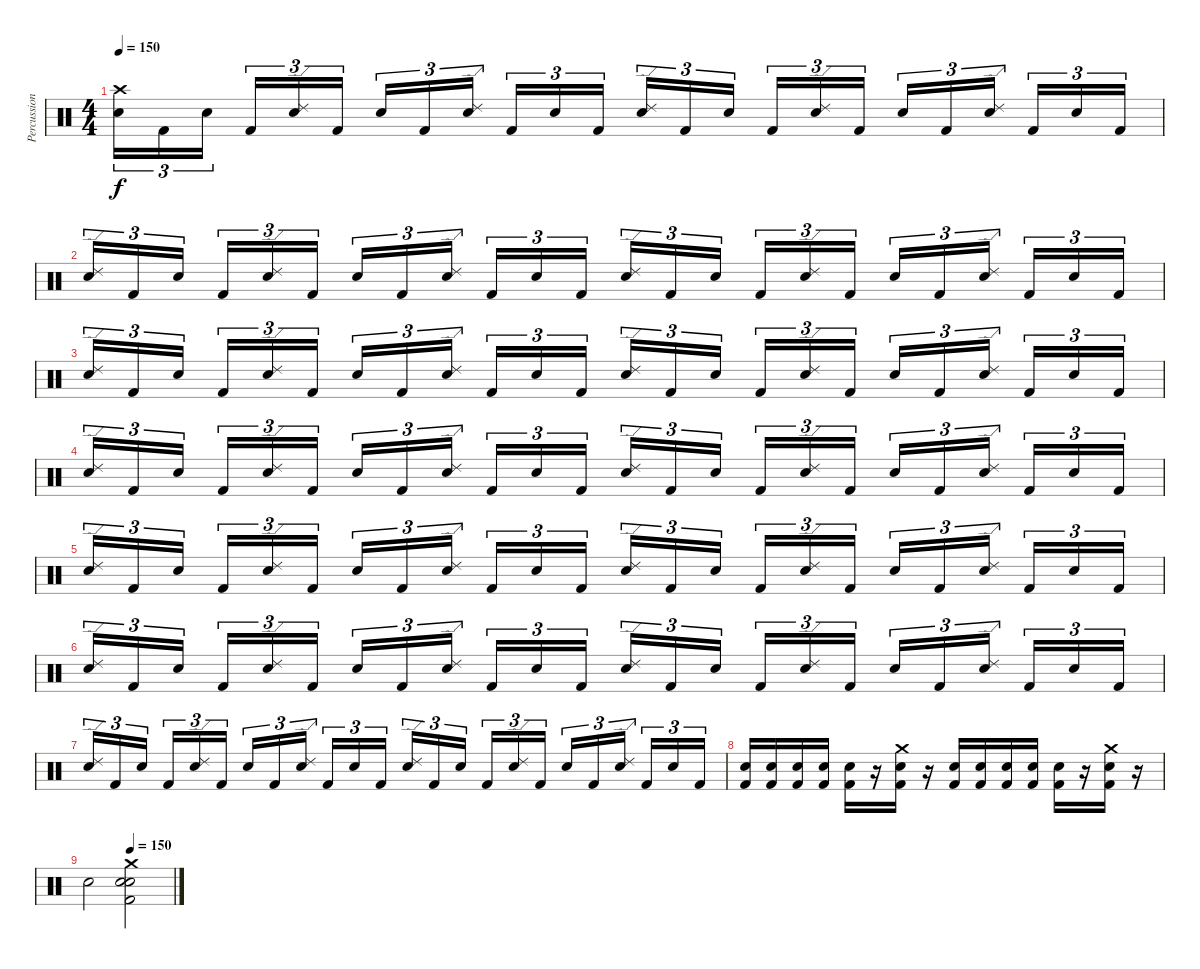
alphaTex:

\track ("Percussion" "Percussion") {instrument percussion}
\staff {score}
\articulation defaults
\ts (4 4)
\tempo 150
\clef neutral
\ks c
("Electric Snare (hit)" "Crash high (hit)").16{tu (3 2) dy f} "Kick (hit) 2".16{tu (3 2)} "Electric Snare (hit)".16{tu (3 2)} "Kick (hit) 2".16{tu (3 2)} ("Electric Snare (hit)" "Ride (edge) 2").16{tu (3 2)} "Kick (hit) 2".16{tu (3 2)} "Electric Snare (hit)".16{tu (3 2)} "Kick (hit) 2".16{tu (3 2)} ("Electric Snare (hit)" "Ride (edge) 2").16{tu (3 2)} "Kick (hit) 2".16{tu (3 2)} "Electric Snare (hit)".16{tu (3 2)} "Kick (hit) 2".16{tu (3 2)} ("Electric Snare (hit)" "Ride (edge) 2").16{tu (3 2)} "Kick (hit) 2".16{tu (3 2)} "Electric Snare (hit)".16{tu (3 2)} "Kick (hit) 2".16{tu (3 2)} ("Electric Snare (hit)" "Ride (edge) 2").16{tu (3 2)} "Kick (hit) 2".16{tu (3 2)} "Electric Snare (hit)".16{tu (3 2)} "Kick (hit) 2".16{tu (3 2)} ("Electric Snare (hit)" "Ride (edge) 2").16{tu (3 2)} "Kick (hit) 2".16{tu (3 2)} "Electric Snare (hit)".16{tu (3 2)} "Kick (hit) 2".16{tu (3 2)} |
("Electric Snare (hit)" "Ride (edge) 2").16{tu (3 2)} "Kick (hit) 2".16{tu (3 2)} "Electric Snare (hit)".16{tu (3 2)} "Kick (hit) 2".16{tu (3 2)} ("Electric Snare (hit)" "Ride (edge) 2").16{tu (3 2)} "Kick (hit) 2".16{tu (3 2)} "Electric Snare (hit)".16{tu (3 2)} "Kick (hit) 2".16{tu (3 2)} ("Electric Snare (hit)" "Ride (edge) 2").16{tu (3 2)} "Kick (hit) 2".16{tu (3 2)} "Electric Snare (hit)".16{tu (3 2)} "Kick (hit) 2".16{tu (3 2)} ("Electric Snare (hit)" "Ride (edge) 2").16{tu (3 2)} "Kick (hit) 2".16{tu (3 2)} "Electric Snare (hit)".16{tu (3 2)} "Kick (hit) 2".16{tu (3 2)} ("Electric Snare (hit)" "Ride (edge) 2").16{tu (3 2)} "Kick (hit) 2".16{tu (3 2)} "Electric Snare (hit)".16{tu (3 2)} "Kick (hit) 2".16{tu (3 2)} ("Electric Snare (hit)" "Ride (edge) 2").16{tu (3 2)} "Kick (hit) 2".16{tu (3 2)} "Electric Snare (hit)".16{tu (3 2)} "Kick (hit) 2".16{tu (3 2)} |
("Electric Snare (hit)" "Ride (edge) 2").16{tu (3 2)} "Kick (hit) 2".16{tu (3 2)} "Electric Snare (hit)".16{tu (3 2)} "Kick (hit) 2".16{tu (3 2)} ("Electric Snare (hit)" "Ride (edge) 2").16{tu (3 2)} "Kick (hit) 2".16{tu (3 2)} "Electric Snare (hit)".16{tu (3 2)} "Kick (hit) 2".16{tu (3 2)} ("Electric Snare (hit)" "Ride (edge) 2").16{tu (3 2)} "Kick (hit) 2".16{tu (3 2)} "Electric Snare (hit)".16{tu (3 2)} "Kick (hit) 2".16{tu (3 2)} ("Electric Snare (hit)" "Ride (edge) 2").16{tu (3 2)} "Kick (hit) 2".16{tu (3 2)} "Electric Snare (hit)".16{tu (3 2)} "Kick (hit) 2".16{tu (3 2)} ("Electric Snare (hit)" "Ride (edge) 2").16{tu (3 2)} "Kick (hit) 2".16{tu (3 2)} "Electric Snare (hit)".16{tu (3 2)} "Kick (hit) 2".16{tu (3 2)} ("Electric Snare (hit)" "Ride (edge) 2").16{tu (3 2)} "Kick (hit) 2".16{tu (3 2)} "Electric Snare (hit)".16{tu (3 2)} "Kick (hit) 2".16{tu (3 2)} |
("Electric Snare (hit)" "Ride (edge) 2").16{tu (3 2)} "Kick (hit) 2".16{tu (3 2)} "Electric Snare (hit)".16{tu (3 2)} "Kick (hit) 2".16{tu (3 2)} ("Electric Snare (hit)" "Ride (edge) 2").16{tu (3 2)} "Kick (hit) 2".16{tu (3 2)} "Electric Snare (hit)".16{tu (3 2)} "Kick (hit) 2".16{tu (3 2)} ("Electric Snare (hit)" "Ride (edge) 2").16{tu (3 2)} "Kick (hit) 2".16{tu (3 2)} "Electric Snare (hit)".16{tu (3 2)} "Kick (hit) 2".16{tu (3 2)} ("Electric Snare (hit)" "Ride (edge) 2").16{tu (3 2)} "Kick (hit) 2".16{tu (3 2)} "Electric Snare (hit)".16{tu (3 2)} "Kick (hit) 2".16{tu (3 2)} ("Electric Snare (hit)" "Ride (edge) 2").16{tu (3 2)} "Kick (hit) 2".16{tu (3 2)} "Electric Snare (hit)".16{tu (3 2)} "Kick (hit) 2".16{tu (3 2)} ("Electric Snare (hit)" "Ride (edge) 2").16{tu (3 2)} "Kick (hit) 2".16{tu (3 2)} "Electric Snare (hit)".16{tu (3 2)} "Kick (hit) 2".16{tu (3 2)} |
("Electric Snare (hit)" "Ride (edge) 2").16{tu (3 2)} "Kick (hit) 2".16{tu (3 2)} "Electric Snare (hit)".16{tu (3 2)} "Kick (hit) 2".16{tu (3 2)} ("Electric Snare (hit)" "Ride (edge) 2").16{tu (3 2)} "Kick (hit) 2".16{tu (3 2)} "Electric Snare (hit)".16{tu (3 2)} "Kick (hit) 2".16{tu (3 2)} ("Electric Snare (hit)" "Ride (edge) 2").16{tu (3 2)} "Kick (hit) 2".16{tu (3 2)} "Electric Snare (hit)".16{tu (3 2)} "Kick (hit) 2".16{tu (3 2)} ("Electric Snare (hit)" "Ride (edge) 2").16{tu (3 2)} "Kick (hit) 2".16{tu (3 2)} "Electric Snare (hit)".16{tu (3 2)} "Kick (hit) 2".16{tu (3 2)} ("Electric Snare (hit)" "Ride (edge) 2").16{tu (3 2)} "Kick (hit) 2".16{tu (3 2)} "Electric Snare (hit)".16{tu (3 2)} "Kick (hit) 2".16{tu (3 2)} ("Electric Snare (hit)" "Ride (edge) 2").16{tu (3 2)} "Kick (hit) 2".16{tu (3 2)} "Electric Snare (hit)".16{tu (3 2)} "Kick (hit) 2".16{tu (3 2)} |
("Electric Snare (hit)" "Ride (edge) 2").16{tu (3 2)} "Kick (hit) 2".16{tu (3 2)} "Electric Snare (hit)".16{tu (3 2)} "Kick (hit) 2".16{tu (3 2)} ("Electric Snare (hit)" "Ride (edge) 2").16{tu (3 2)} "Kick (hit) 2".16{tu (3 2)} "Electric Snare (hit)".16{tu (3 2)} "Kick (hit) 2".16{tu (3 2)} ("Electric Snare (hit)" "Ride (edge) 2").16{tu (3 2)} "Kick (hit) 2".16{tu (3 2)} "Electric Snare (hit)".16{tu (3 2)} "Kick (hit) 2".16{tu (3 2)} ("Electric Snare (hit)" "Ride (edge) 2").16{tu (3 2)} "Kick (hit) 2".16{tu (3 2)} "Electric Snare (hit)".16{tu (3 2)} "Kick (hit) 2".16{tu (3 2)} ("Electric Snare (hit)" "Ride (edge) 2").16{tu (3 2)} "Kick (hit) 2".16{tu (3 2)} "Electric Snare (hit)".16{tu (3 2)} "Kick (hit) 2".16{tu (3 2)} ("Electric Snare (hit)" "Ride (edge) 2").16{tu (3 2)} "Kick (hit) 2".16{tu (3 2)} "Electric Snare (hit)".16{tu (3 2)} "Kick (hit) 2".16{tu (3 2)} |
("Electric Snare (hit)" "Ride (edge) 2").16{tu (3 2)} "Kick (hit) 2".16{tu (3 2)} "Electric Snare (hit)".16{tu (3 2)} "Kick (hit) 2".16{tu (3 2)} ("Electric Snare (hit)" "Ride (edge) 2").16{tu (3 2)} "Kick (hit) 2".16{tu (3 2)} "Electric Snare (hit)".16{tu (3 2)} "Kick (hit) 2".16{tu (3 2)} ("Electric Snare (hit)" "Ride (edge) 2").16{tu (3 2)} "Kick (hit) 2".16{tu (3 2)} "Electric Snare (hit)".16{tu (3 2)} "Kick (hit) 2".16{tu (3 2)} ("Electric Snare (hit)" "Ride (edge) 2").16{tu (3 2)} "Kick (hit) 2".16{tu (3 2)} "Electric Snare (hit)".16{tu (3 2)} "Kick (hit) 2".16{tu (3 2)} ("Electric Snare (hit)" "Ride (edge) 2").16{tu (3 2)} "Kick (hit) 2".16{tu (3 2)} "Electric Snare (hit)".16{tu (3 2)} "Kick (hit) 2".16{tu (3 2)} ("Electric Snare (hit)" "Ride (edge) 2").16{tu (3 2)} "Kick (hit) 2".16{tu (3 2)} "Electric Snare (hit)".16{tu (3 2)} "Kick (hit) 2".16{tu (3 2)} |
("Electric Snare (hit)" "Kick (hit) 2").16 ("Electric Snare (hit)" "Kick (hit) 2").16 ("Electric Snare (hit)" "Kick (hit) 2").16 ("Electric Snare (hit)" "Kick (hit) 2").16 ("Electric Snare (hit)" "Kick (hit) 2").16 r.16 ("Electric Snare (hit)" "Crash medium (hit)" "Kick (hit) 2").16 r.16 ("Electric Snare (hit)" "Kick (hit) 2").16 ("Electric Snare (hit)" "Kick (hit) 2").16 ("Electric Snare (hit)" "Kick (hit) 2").16 ("Electric Snare (hit)" "Kick (hit) 2").16 ("Electric Snare (hit)" "Kick (hit) 2").16 r.16 ("Electric Snare (hit)" "Crash medium (hit)" "Kick (hit) 2").16 r.16 |
\tempo (150 0.5)
"Snare (hit)".2 ("Snare (hit) 2" "Crash medium (hit)" "Electric Snare (hit)" "Kick (hit) 2").2
